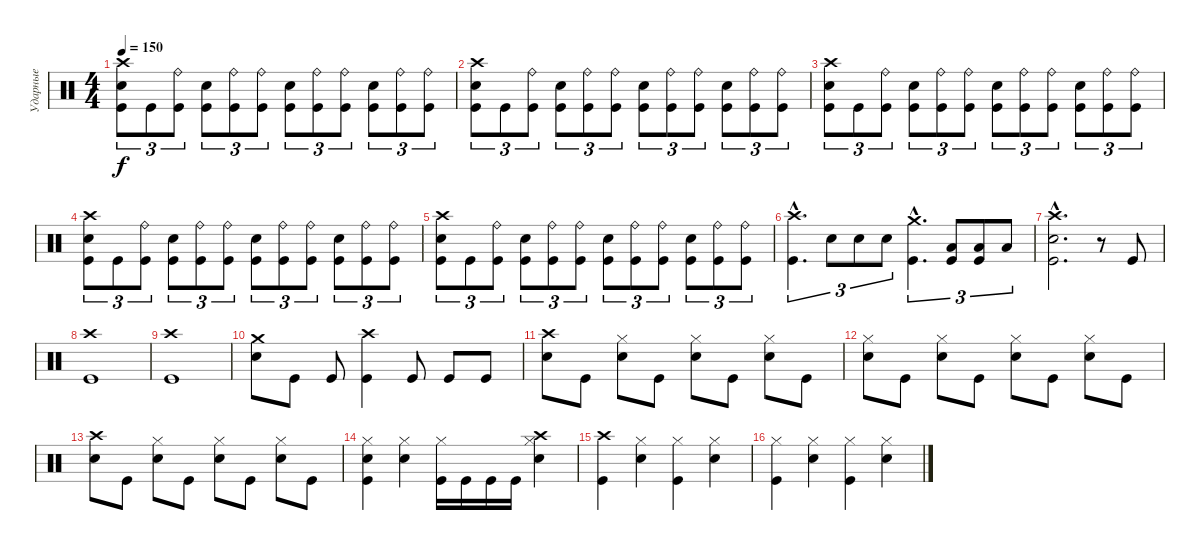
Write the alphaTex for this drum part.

\track ("Ударные" "Ударные") {instrument percussion}
\staff {score}
\articulation defaults
\ts (4 4)
\tempo 150
\clef neutral
\ks c
("Crash high (hit)" "Electric Snare (hit)" "Kick (hit)").8{tu (3 2) dy f} "Kick (hit)".8{tu (3 2)} ("Ride (bell)" "Kick (hit)").8{tu (3 2)} ("Electric Snare (hit)" "Kick (hit)").8{tu (3 2)} ("Ride (bell)" "Kick (hit)").8{tu (3 2)} ("Ride (bell)" "Kick (hit)").8{tu (3 2)} ("Electric Snare (hit)" "Kick (hit)").8{tu (3 2)} ("Ride (bell)" "Kick (hit)").8{tu (3 2)} ("Ride (bell)" "Kick (hit)").8{tu (3 2)} ("Electric Snare (hit)" "Kick (hit)").8{tu (3 2)} ("Ride (bell)" "Kick (hit)").8{tu (3 2)} ("Ride (bell)" "Kick (hit)").8{tu (3 2)} |
("Crash high (hit)" "Electric Snare (hit)" "Kick (hit)").8{tu (3 2)} "Kick (hit)".8{tu (3 2)} ("Ride (bell)" "Kick (hit)").8{tu (3 2)} ("Electric Snare (hit)" "Kick (hit)").8{tu (3 2)} ("Ride (bell)" "Kick (hit)").8{tu (3 2)} ("Ride (bell)" "Kick (hit)").8{tu (3 2)} ("Electric Snare (hit)" "Kick (hit)").8{tu (3 2)} ("Ride (bell)" "Kick (hit)").8{tu (3 2)} ("Ride (bell)" "Kick (hit)").8{tu (3 2)} ("Electric Snare (hit)" "Kick (hit)").8{tu (3 2)} ("Ride (bell)" "Kick (hit)").8{tu (3 2)} ("Ride (bell)" "Kick (hit)").8{tu (3 2)} |
("Crash high (hit)" "Electric Snare (hit)" "Kick (hit)").8{tu (3 2)} "Kick (hit)".8{tu (3 2)} ("Ride (bell)" "Kick (hit)").8{tu (3 2)} ("Electric Snare (hit)" "Kick (hit)").8{tu (3 2)} ("Ride (bell)" "Kick (hit)").8{tu (3 2)} ("Ride (bell)" "Kick (hit)").8{tu (3 2)} ("Electric Snare (hit)" "Kick (hit)").8{tu (3 2)} ("Ride (bell)" "Kick (hit)").8{tu (3 2)} ("Ride (bell)" "Kick (hit)").8{tu (3 2)} ("Electric Snare (hit)" "Kick (hit)").8{tu (3 2)} ("Ride (bell)" "Kick (hit)").8{tu (3 2)} ("Ride (bell)" "Kick (hit)").8{tu (3 2)} |
("Crash high (hit)" "Electric Snare (hit)" "Kick (hit)").8{tu (3 2)} "Kick (hit)".8{tu (3 2)} ("Ride (bell)" "Kick (hit)").8{tu (3 2)} ("Electric Snare (hit)" "Kick (hit)").8{tu (3 2)} ("Ride (bell)" "Kick (hit)").8{tu (3 2)} ("Ride (bell)" "Kick (hit)").8{tu (3 2)} ("Electric Snare (hit)" "Kick (hit)").8{tu (3 2)} ("Ride (bell)" "Kick (hit)").8{tu (3 2)} ("Ride (bell)" "Kick (hit)").8{tu (3 2)} ("Electric Snare (hit)" "Kick (hit)").8{tu (3 2)} ("Ride (bell)" "Kick (hit)").8{tu (3 2)} ("Ride (bell)" "Kick (hit)").8{tu (3 2)} |
("Crash high (hit)" "Electric Snare (hit)" "Kick (hit)").8{tu (3 2)} "Kick (hit)".8{tu (3 2)} ("Ride (bell)" "Kick (hit)").8{tu (3 2)} ("Electric Snare (hit)" "Kick (hit)").8{tu (3 2)} ("Ride (bell)" "Kick (hit)").8{tu (3 2)} ("Ride (bell)" "Kick (hit)").8{tu (3 2)} ("Electric Snare (hit)" "Kick (hit)").8{tu (3 2)} ("Ride (bell)" "Kick (hit)").8{tu (3 2)} ("Ride (bell)" "Kick (hit)").8{tu (3 2)} ("Electric Snare (hit)" "Kick (hit)").8{tu (3 2)} ("Ride (bell)" "Kick (hit)").8{tu (3 2)} ("Ride (bell)" "Kick (hit)").8{tu (3 2)} |
("Crash high (hit)"{hac} "Kick (hit)"{hac}).4{d tu (3 2)} "Electric Snare (hit)".8{tu (3 2)} "Electric Snare (hit)".8{tu (3 2)} "Electric Snare (hit)".8{tu (3 2)} ("Crash medium (hit)"{hac} "Kick (hit)"{hac}).4{d tu (3 2)} ("Low Tom (hit)" "Kick (hit)").8{tu (3 2)} ("Low Tom (hit)" "Kick (hit)").8{tu (3 2)} "Low Tom (hit)".8{tu (3 2)} |
("Crash high (hit)"{hac} "Electric Snare (hit)"{hac} "Kick (hit)"{hac}).2{d} r.8 "Kick (hit)".8 |
("Crash high (hit)" "Kick (hit)").1 |
("Crash high (hit)" "Kick (hit)").1 |
("Crash medium (hit)" "Electric Snare (hit)").8 "Kick (hit)".8 "Kick (hit)".8 ("Crash high (hit)" "Kick (hit)").4 "Kick (hit)".8 "Kick (hit)".8 "Kick (hit)".8 |
("Crash high (hit)" "Electric Snare (hit)").8 "Kick (hit)".8 ("Hi-Hat (closed)" "Electric Snare (hit)").8 "Kick (hit)".8 ("Hi-Hat (closed)" "Electric Snare (hit)").8 "Kick (hit)".8 ("Hi-Hat (closed)" "Electric Snare (hit)").8 "Kick (hit)".8 |
("Hi-Hat (closed)" "Electric Snare (hit)").8 "Kick (hit)".8 ("Hi-Hat (closed)" "Electric Snare (hit)").8 "Kick (hit)".8 ("Hi-Hat (closed)" "Electric Snare (hit)").8 "Kick (hit)".8 ("Hi-Hat (closed)" "Electric Snare (hit)").8 "Kick (hit)".8 |
("Crash high (hit)" "Electric Snare (hit)").8 "Kick (hit)".8 ("Hi-Hat (closed)" "Electric Snare (hit)").8 "Kick (hit)".8 ("Hi-Hat (closed)" "Electric Snare (hit)").8 "Kick (hit)".8 ("Hi-Hat (closed)" "Electric Snare (hit)").8 "Kick (hit)".8 |
("Hi-Hat (closed)" "Electric Snare (hit)" "Kick (hit)").4 ("Hi-Hat (closed)" "Electric Snare (hit)").4 ("Hi-Hat (closed)" "Kick (hit)").16 "Kick (hit)".16 "Kick (hit)".16 "Kick (hit)".16 ("Crash high (hit)" "Hi-Hat (closed)" "Electric Snare (hit)").4 |
("Crash high (hit)" "Kick (hit)").4 ("Hi-Hat (closed)" "Electric Snare (hit)").4 ("Hi-Hat (closed)" "Kick (hit)").4 ("Hi-Hat (closed)" "Electric Snare (hit)").4 |
("Hi-Hat (closed)" "Kick (hit)").4 ("Hi-Hat (closed)" "Electric Snare (hit)").4 ("Hi-Hat (closed)" "Kick (hit)").4 ("Hi-Hat (closed)" "Electric Snare (hit)").4
